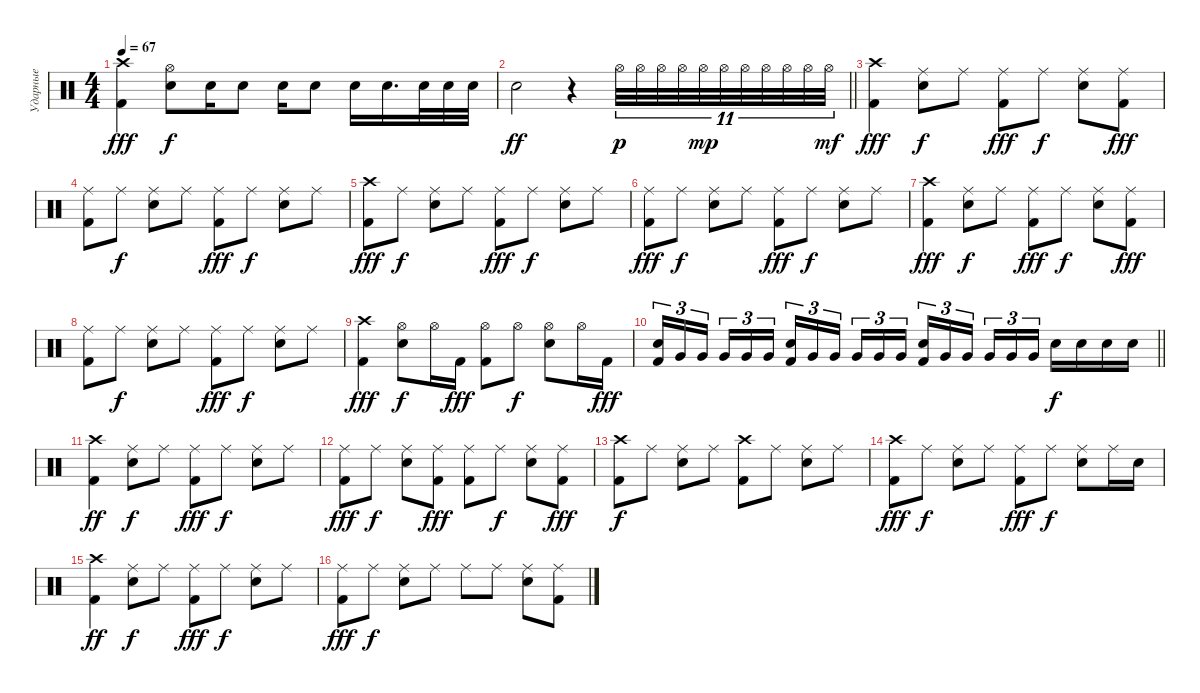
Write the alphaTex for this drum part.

\track ("Ударные" "Ударные") {instrument percussion}
\staff
\articulation defaults
\ts (4 4)
\tempo 67
\clef neutral
\ks c
("Kick (hit) 2" "Crash high (hit)").4{dy fff} ("Snare (hit) 2" "Hi-Hat (open)").8{dy f} "Snare (hit) 2".16 "Snare (hit) 2".8 "Snare (hit) 2".16 "Snare (hit) 2".8 "Snare (hit) 2".16 "Snare (hit) 2".16{d} "Electric Snare (hit)".32 "Electric Snare (hit)".32 "Electric Snare (hit)".32 |
\barLineRight lightlight "Snare (hit) 2".2{dy ff}
r.4 "Hi-Hat (open)".32{tu (11 8) dy p} "Hi-Hat (open)".32{tu (11 8)} "Hi-Hat (open)".32{tu (11 8)} "Hi-Hat (open)".32{tu (11 8)} "Hi-Hat (open)".32{tu (11 8) dy mp} "Hi-Hat (open)".32{tu (11 8)} "Hi-Hat (open)".32{tu (11 8)} "Hi-Hat (open)".32{tu (11 8)} "Hi-Hat (open)".32{tu (11 8)} "Hi-Hat (open)".32{tu (11 8)} "Hi-Hat (open)".32{tu (11 8) dy mf} |
("Kick (hit) 2" "Crash high (hit)").4{dy fff} ("Snare (hit) 2" "Ride (middle)").8{dy f} "Ride (middle)".8 ("Kick (hit) 2" "Ride (middle)").8{dy fff} "Ride (middle)".8{dy f} ("Snare (hit) 2" "Ride (middle)").8 ("Kick (hit) 2" "Ride (middle)").8{dy fff} |
("Kick (hit) 2" "Ride (middle)").8 "Ride (middle)".8{dy f} ("Snare (hit) 2" "Ride (middle)").8 "Ride (middle)".8 ("Kick (hit) 2" "Ride (middle)").8{dy fff} "Ride (middle)".8{dy f} ("Snare (hit) 2" "Ride (middle)").8 "Ride (middle)".8 |
("Kick (hit) 2" "Crash high (hit)").8{dy fff} "Ride (middle)".8{dy f} ("Snare (hit) 2" "Ride (middle)").8 "Ride (middle)".8 ("Kick (hit) 2" "Ride (middle)").8{dy fff} "Ride (middle)".8{dy f} ("Snare (hit) 2" "Ride (middle)").8 "Ride (middle)".8 |
("Kick (hit) 2" "Ride (middle)").8{dy fff} "Ride (middle)".8{dy f} ("Snare (hit) 2" "Ride (middle)").8 "Ride (middle)".8 ("Kick (hit) 2" "Ride (middle)").8{dy fff} "Ride (middle)".8{dy f} ("Snare (hit) 2" "Ride (middle)").8 "Ride (middle)".8 |
("Kick (hit) 2" "Crash high (hit)").4{dy fff} ("Snare (hit) 2" "Ride (middle)").8{dy f} "Ride (middle)".8 ("Kick (hit) 2" "Ride (middle)").8{dy fff} "Ride (middle)".8{dy f} ("Snare (hit) 2" "Ride (middle)").8 ("Kick (hit) 2" "Ride (middle)").8{dy fff} |
("Kick (hit) 2" "Ride (middle)").8 "Ride (middle)".8{dy f} ("Snare (hit) 2" "Ride (middle)").8 "Ride (middle)".8 ("Kick (hit) 2" "Ride (middle)").8{dy fff} "Ride (middle)".8{dy f} ("Snare (hit) 2" "Ride (middle)").8 "Ride (middle)".8 |
("Kick (hit) 2" "Crash high (hit)").4{dy fff} ("Snare (hit) 2" "Hi-Hat (open)").8{dy f} "Hi-Hat (open)".16 "Kick (hit) 2".16{dy fff} ("Kick (hit) 2" "Hi-Hat (open)").8 "Hi-Hat (open)".8{dy f} ("Snare (hit) 2" "Hi-Hat (open)").8 "Hi-Hat (open)".16 "Kick (hit) 2".16{dy fff} |
\barLineRight lightlight
("Kick (hit) 2" "Snare (hit) 2").16{tu (3 2)} "Very Low Tom (hit)".16{tu (3 2)} "Very Low Tom (hit)".16{tu (3 2) beam splitsecondary} "Very Low Tom (hit)".16{tu (3 2)} "Very Low Tom (hit)".16{tu (3 2)} "Very Low Tom (hit)".16{tu (3 2)} ("Kick (hit) 2" "Snare (hit) 2").16{tu (3 2)} "Very Low Tom (hit)".16{tu (3 2)} "Very Low Tom (hit)".16{tu (3 2) beam splitsecondary} "Very Low Tom (hit)".16{tu (3 2)} "Very Low Tom (hit)".16{tu (3 2)} "Very Low Tom (hit)".16{tu (3 2)} ("Kick (hit) 2" "Snare (hit) 2").16{tu (3 2)} "Very Low Tom (hit)".16{tu (3 2)} "Very Low Tom (hit)".16{tu (3 2) beam splitsecondary} "Very Low Tom (hit)".16{tu (3 2)} "Very Low Tom (hit)".16{tu (3 2)} "Very Low Tom (hit)".16{tu (3 2)} "Electric Snare (hit)".16{dy f} "Electric Snare (hit)".16 "Electric Snare (hit)".16 "Electric Snare (hit)".16 |
("Kick (hit) 2" "Crash high (hit)").4{dy ff} ("Snare (hit) 2" "Ride (middle)").8{dy f} "Ride (middle)".8 ("Kick (hit) 2" "Ride (middle)").8{dy fff} "Ride (middle)".8{dy f} ("Snare (hit) 2" "Ride (middle)").8 "Ride (middle)".8 |
("Kick (hit) 2" "Ride (middle)").8{dy fff} "Ride (middle)".8{dy f} ("Snare (hit) 2" "Ride (middle)").8 ("Kick (hit) 2" "Ride (middle)").8{dy fff} ("Kick (hit) 2" "Ride (middle)").8 "Ride (middle)".8{dy f} ("Snare (hit) 2" "Ride (middle)").8 ("Kick (hit) 2" "Ride (middle)").8{dy fff} |
("Kick (hit) 2" "Crash high (hit)").8{dy f} "Ride (middle)".8 ("Snare (hit) 2" "Ride (middle)").8 "Ride (middle)".8 ("Kick (hit) 2" "Crash high (hit)").8 "Ride (middle)".8 ("Snare (hit) 2" "Ride (middle)").8 "Ride (middle)".8 |
("Kick (hit) 2" "Crash high (hit)").8{dy fff} "Ride (middle)".8{dy f} ("Snare (hit) 2" "Ride (middle)").8 "Ride (middle)".8 ("Kick (hit) 2" "Ride (middle)").8{dy fff} "Ride (middle)".8{dy f} ("Snare (hit) 2" "Ride (middle)").8 "Ride (middle)".16 "Snare (hit) 2".16 |
("Kick (hit) 2" "Crash high (hit)").4{dy ff} ("Snare (hit) 2" "Ride (middle)").8{dy f} "Ride (middle)".8 ("Kick (hit) 2" "Ride (middle)").8{dy fff} "Ride (middle)".8{dy f} ("Snare (hit) 2" "Ride (middle)").8 "Ride (middle)".8 |
("Kick (hit) 2" "Ride (middle)").8{dy fff} "Ride (middle)".8{dy f} ("Snare (hit) 2" "Ride (middle)").8 "Ride (middle)".8 "Ride (middle)".8 "Ride (middle)".8 ("Snare (hit) 2" "Ride (middle)").8 ("Kick (hit) 2" "Ride (middle)").8
